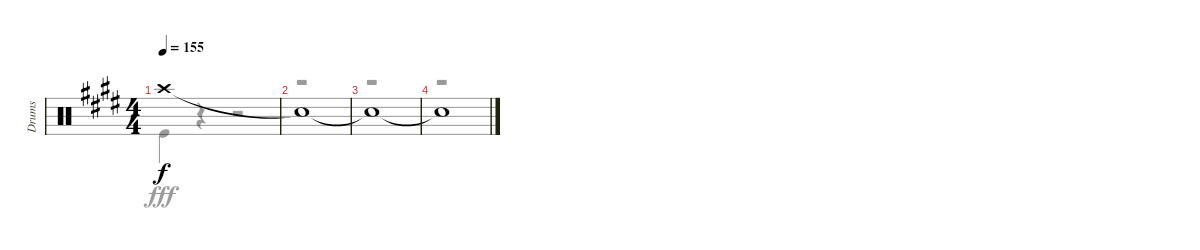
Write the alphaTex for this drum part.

\track ("Drums" "Drums") {instrument percussion}
\staff {score}
\articulation defaults
\voice
\ts (4 4)
\tempo 155
\clef neutral
\ks e "Crash high (hit)".1{dy f}
|
"Snare (hit)"{t}.1 |
"Snare (hit)"{t}.1 |
"Snare (hit)"{t}.1
\voice
\clef neutral
\ottava regular
\simile none
\ks e "Kick (hit)".4{dy fff}
r.4 r.2 |
r.1 |
r.1 |
r.1
